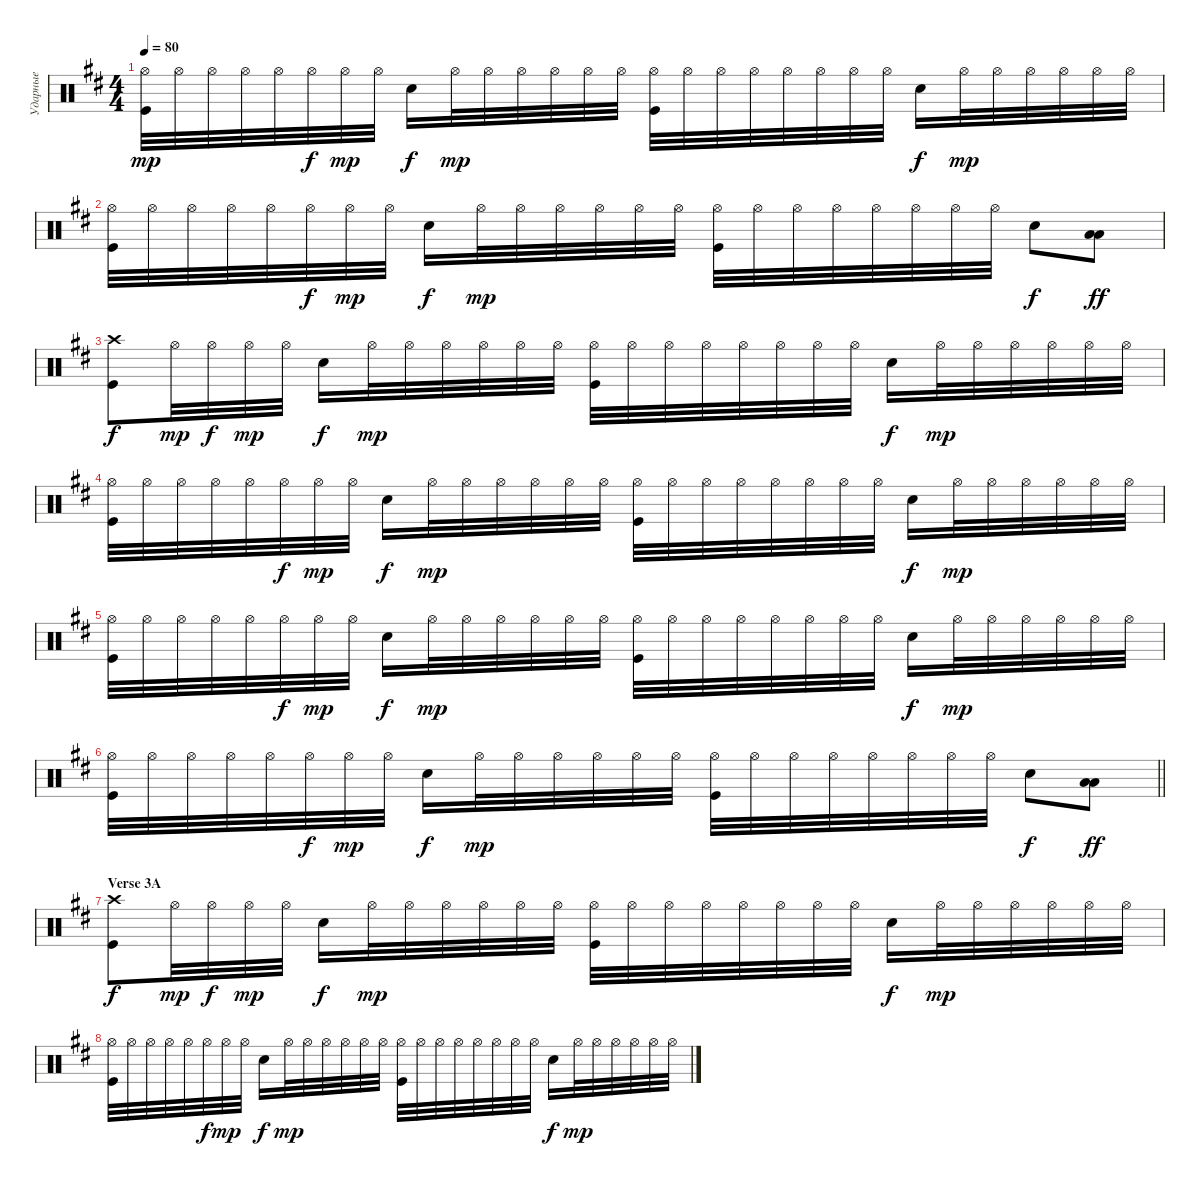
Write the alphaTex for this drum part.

\track ("Ударные" "Ударные") {instrument percussion}
\staff {score}
\articulation defaults
\ts (4 4)
\tempo 80
\clef neutral
\ks bminor
("Kick (hit)" "Hi-Hat (open)").32{dy mp} "Hi-Hat (open)".32 "Hi-Hat (open)".32 "Hi-Hat (open)".32 "Hi-Hat (open)".32 "Hi-Hat (open)".32{dy f} "Hi-Hat (open)".32{dy mp} "Hi-Hat (open)".32 "Snare (hit) 2".16{dy f} "Hi-Hat (open)".32{dy mp} "Hi-Hat (open)".32 "Hi-Hat (open)".32 "Hi-Hat (open)".32 "Hi-Hat (open)".32 "Hi-Hat (open)".32 ("Kick (hit)" "Hi-Hat (open)").32 "Hi-Hat (open)".32 "Hi-Hat (open)".32 "Hi-Hat (open)".32 "Hi-Hat (open)".32 "Hi-Hat (open)".32 "Hi-Hat (open)".32 "Hi-Hat (open)".32 "Snare (hit) 2".16{dy f} "Hi-Hat (open)".32{dy mp} "Hi-Hat (open)".32 "Hi-Hat (open)".32 "Hi-Hat (open)".32 "Hi-Hat (open)".32 "Hi-Hat (open)".32 |
("Kick (hit)" "Hi-Hat (open)").32 "Hi-Hat (open)".32 "Hi-Hat (open)".32 "Hi-Hat (open)".32 "Hi-Hat (open)".32 "Hi-Hat (open)".32{dy f} "Hi-Hat (open)".32{dy mp} "Hi-Hat (open)".32 "Snare (hit) 2".16{dy f} "Hi-Hat (open)".32{dy mp} "Hi-Hat (open)".32 "Hi-Hat (open)".32 "Hi-Hat (open)".32 "Hi-Hat (open)".32 "Hi-Hat (open)".32 ("Kick (hit)" "Hi-Hat (open)").32 "Hi-Hat (open)".32 "Hi-Hat (open)".32 "Hi-Hat (open)".32 "Hi-Hat (open)".32 "Hi-Hat (open)".32 "Hi-Hat (open)".32 "Hi-Hat (open)".32 "Snare (hit) 2".8{dy f} ("Low Tom (hit)" "Low Tom (hit)").8{bd 480 dy ff} |
("Kick (hit)" "Crash high (hit)").8{dy f} "Hi-Hat (open)".32{dy mp} "Hi-Hat (open)".32{dy f} "Hi-Hat (open)".32{dy mp} "Hi-Hat (open)".32 "Snare (hit) 2".16{dy f} "Hi-Hat (open)".32{dy mp} "Hi-Hat (open)".32 "Hi-Hat (open)".32 "Hi-Hat (open)".32 "Hi-Hat (open)".32 "Hi-Hat (open)".32 ("Kick (hit)" "Hi-Hat (open)").32 "Hi-Hat (open)".32 "Hi-Hat (open)".32 "Hi-Hat (open)".32 "Hi-Hat (open)".32 "Hi-Hat (open)".32 "Hi-Hat (open)".32 "Hi-Hat (open)".32 "Snare (hit) 2".16{dy f} "Hi-Hat (open)".32{dy mp} "Hi-Hat (open)".32 "Hi-Hat (open)".32 "Hi-Hat (open)".32 "Hi-Hat (open)".32 "Hi-Hat (open)".32 |
("Kick (hit)" "Hi-Hat (open)").32 "Hi-Hat (open)".32 "Hi-Hat (open)".32 "Hi-Hat (open)".32 "Hi-Hat (open)".32 "Hi-Hat (open)".32{dy f} "Hi-Hat (open)".32{dy mp} "Hi-Hat (open)".32 "Snare (hit) 2".16{dy f} "Hi-Hat (open)".32{dy mp} "Hi-Hat (open)".32 "Hi-Hat (open)".32 "Hi-Hat (open)".32 "Hi-Hat (open)".32 "Hi-Hat (open)".32 ("Kick (hit)" "Hi-Hat (open)").32 "Hi-Hat (open)".32 "Hi-Hat (open)".32 "Hi-Hat (open)".32 "Hi-Hat (open)".32 "Hi-Hat (open)".32 "Hi-Hat (open)".32 "Hi-Hat (open)".32 "Snare (hit) 2".16{dy f} "Hi-Hat (open)".32{dy mp} "Hi-Hat (open)".32 "Hi-Hat (open)".32 "Hi-Hat (open)".32 "Hi-Hat (open)".32 "Hi-Hat (open)".32 |
("Kick (hit)" "Hi-Hat (open)").32 "Hi-Hat (open)".32 "Hi-Hat (open)".32 "Hi-Hat (open)".32 "Hi-Hat (open)".32 "Hi-Hat (open)".32{dy f} "Hi-Hat (open)".32{dy mp} "Hi-Hat (open)".32 "Snare (hit) 2".16{dy f} "Hi-Hat (open)".32{dy mp} "Hi-Hat (open)".32 "Hi-Hat (open)".32 "Hi-Hat (open)".32 "Hi-Hat (open)".32 "Hi-Hat (open)".32 ("Kick (hit)" "Hi-Hat (open)").32 "Hi-Hat (open)".32 "Hi-Hat (open)".32 "Hi-Hat (open)".32 "Hi-Hat (open)".32 "Hi-Hat (open)".32 "Hi-Hat (open)".32 "Hi-Hat (open)".32 "Snare (hit) 2".16{dy f} "Hi-Hat (open)".32{dy mp} "Hi-Hat (open)".32 "Hi-Hat (open)".32 "Hi-Hat (open)".32 "Hi-Hat (open)".32 "Hi-Hat (open)".32 |
\barLineRight lightlight
("Kick (hit)" "Hi-Hat (open)").32 "Hi-Hat (open)".32 "Hi-Hat (open)".32 "Hi-Hat (open)".32 "Hi-Hat (open)".32 "Hi-Hat (open)".32{dy f} "Hi-Hat (open)".32{dy mp} "Hi-Hat (open)".32 "Snare (hit) 2".16{dy f} "Hi-Hat (open)".32{dy mp} "Hi-Hat (open)".32 "Hi-Hat (open)".32 "Hi-Hat (open)".32 "Hi-Hat (open)".32 "Hi-Hat (open)".32 ("Kick (hit)" "Hi-Hat (open)").32 "Hi-Hat (open)".32 "Hi-Hat (open)".32 "Hi-Hat (open)".32 "Hi-Hat (open)".32 "Hi-Hat (open)".32 "Hi-Hat (open)".32 "Hi-Hat (open)".32 "Snare (hit) 2".8{dy f} ("Low Tom (hit)" "Low Tom (hit)").8{bd 480 dy ff} |
\section ("" "Verse 3A")
("Kick (hit)" "Crash high (hit)").8{dy f} "Hi-Hat (open)".32{dy mp} "Hi-Hat (open)".32{dy f} "Hi-Hat (open)".32{dy mp} "Hi-Hat (open)".32 "Snare (hit) 2".16{dy f} "Hi-Hat (open)".32{dy mp} "Hi-Hat (open)".32 "Hi-Hat (open)".32 "Hi-Hat (open)".32 "Hi-Hat (open)".32 "Hi-Hat (open)".32 ("Kick (hit)" "Hi-Hat (open)").32 "Hi-Hat (open)".32 "Hi-Hat (open)".32 "Hi-Hat (open)".32 "Hi-Hat (open)".32 "Hi-Hat (open)".32 "Hi-Hat (open)".32 "Hi-Hat (open)".32 "Snare (hit) 2".16{dy f} "Hi-Hat (open)".32{dy mp} "Hi-Hat (open)".32 "Hi-Hat (open)".32 "Hi-Hat (open)".32 "Hi-Hat (open)".32 "Hi-Hat (open)".32 |
("Kick (hit)" "Hi-Hat (open)").32 "Hi-Hat (open)".32 "Hi-Hat (open)".32 "Hi-Hat (open)".32 "Hi-Hat (open)".32 "Hi-Hat (open)".32{dy f} "Hi-Hat (open)".32{dy mp} "Hi-Hat (open)".32 "Snare (hit) 2".16{dy f} "Hi-Hat (open)".32{dy mp} "Hi-Hat (open)".32 "Hi-Hat (open)".32 "Hi-Hat (open)".32 "Hi-Hat (open)".32 "Hi-Hat (open)".32 ("Kick (hit)" "Hi-Hat (open)").32 "Hi-Hat (open)".32 "Hi-Hat (open)".32 "Hi-Hat (open)".32 "Hi-Hat (open)".32 "Hi-Hat (open)".32 "Hi-Hat (open)".32 "Hi-Hat (open)".32 "Snare (hit) 2".16{dy f} "Hi-Hat (open)".32{dy mp} "Hi-Hat (open)".32 "Hi-Hat (open)".32 "Hi-Hat (open)".32 "Hi-Hat (open)".32 "Hi-Hat (open)".32
